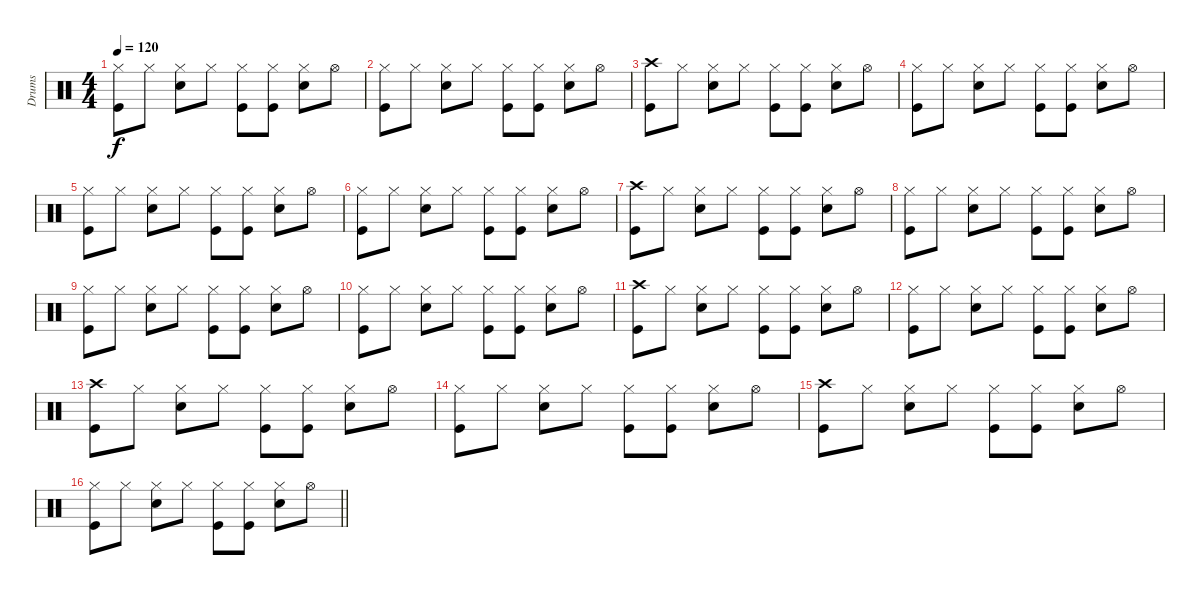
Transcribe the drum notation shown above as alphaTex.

\track ("Drums" "Drums") {instrument percussion}
\staff {score}
\articulation defaults
\ts (4 4)
\tempo 120
\clef neutral
\ks c
("Hi-Hat (closed)" "Kick (hit)").8{dy f} "Hi-Hat (closed)".8 ("Hi-Hat (closed)" "Electric Snare (hit)").8 "Hi-Hat (closed)".8 ("Hi-Hat (closed)" "Kick (hit)").8 ("Hi-Hat (closed)" "Kick (hit)").8 ("Hi-Hat (closed)" "Electric Snare (hit)").8 "Hi-Hat (open)".8 |
("Hi-Hat (closed)" "Kick (hit)").8 "Hi-Hat (closed)".8 ("Hi-Hat (closed)" "Electric Snare (hit)").8 "Hi-Hat (closed)".8 ("Hi-Hat (closed)" "Kick (hit)").8 ("Hi-Hat (closed)" "Kick (hit)").8 ("Hi-Hat (closed)" "Electric Snare (hit)").8 "Hi-Hat (open)".8 |
("Crash high (hit)" "Kick (hit)").8 "Hi-Hat (closed)".8 ("Hi-Hat (closed)" "Electric Snare (hit)").8 "Hi-Hat (closed)".8 ("Hi-Hat (closed)" "Kick (hit)").8 ("Hi-Hat (closed)" "Kick (hit)").8 ("Hi-Hat (closed)" "Electric Snare (hit)").8 "Hi-Hat (open)".8 |
("Hi-Hat (closed)" "Kick (hit)").8 "Hi-Hat (closed)".8 ("Hi-Hat (closed)" "Electric Snare (hit)").8 "Hi-Hat (closed)".8 ("Hi-Hat (closed)" "Kick (hit)").8 ("Hi-Hat (closed)" "Kick (hit)").8 ("Hi-Hat (closed)" "Electric Snare (hit)").8 "Hi-Hat (open)".8 |
("Hi-Hat (closed)" "Kick (hit)").8 "Hi-Hat (closed)".8 ("Hi-Hat (closed)" "Electric Snare (hit)").8 "Hi-Hat (closed)".8 ("Hi-Hat (closed)" "Kick (hit)").8 ("Hi-Hat (closed)" "Kick (hit)").8 ("Hi-Hat (closed)" "Electric Snare (hit)").8 "Hi-Hat (open)".8 |
("Hi-Hat (closed)" "Kick (hit)").8 "Hi-Hat (closed)".8 ("Hi-Hat (closed)" "Electric Snare (hit)").8 "Hi-Hat (closed)".8 ("Hi-Hat (closed)" "Kick (hit)").8 ("Hi-Hat (closed)" "Kick (hit)").8 ("Hi-Hat (closed)" "Electric Snare (hit)").8 "Hi-Hat (open)".8 |
("Crash high (hit)" "Kick (hit)").8 "Hi-Hat (closed)".8 ("Hi-Hat (closed)" "Electric Snare (hit)").8 "Hi-Hat (closed)".8 ("Hi-Hat (closed)" "Kick (hit)").8 ("Hi-Hat (closed)" "Kick (hit)").8 ("Hi-Hat (closed)" "Electric Snare (hit)").8 "Hi-Hat (open)".8 |
("Hi-Hat (closed)" "Kick (hit)").8 "Hi-Hat (closed)".8 ("Hi-Hat (closed)" "Electric Snare (hit)").8 "Hi-Hat (closed)".8 ("Hi-Hat (closed)" "Kick (hit)").8 ("Hi-Hat (closed)" "Kick (hit)").8 ("Hi-Hat (closed)" "Electric Snare (hit)").8 "Hi-Hat (open)".8 |
("Hi-Hat (closed)" "Kick (hit)").8 "Hi-Hat (closed)".8 ("Hi-Hat (closed)" "Electric Snare (hit)").8 "Hi-Hat (closed)".8 ("Hi-Hat (closed)" "Kick (hit)").8 ("Hi-Hat (closed)" "Kick (hit)").8 ("Hi-Hat (closed)" "Electric Snare (hit)").8 "Hi-Hat (open)".8 |
("Hi-Hat (closed)" "Kick (hit)").8 "Hi-Hat (closed)".8 ("Hi-Hat (closed)" "Electric Snare (hit)").8 "Hi-Hat (closed)".8 ("Hi-Hat (closed)" "Kick (hit)").8 ("Hi-Hat (closed)" "Kick (hit)").8 ("Hi-Hat (closed)" "Electric Snare (hit)").8 "Hi-Hat (open)".8 |
("Crash high (hit)" "Kick (hit)").8 "Hi-Hat (closed)".8 ("Hi-Hat (closed)" "Electric Snare (hit)").8 "Hi-Hat (closed)".8 ("Hi-Hat (closed)" "Kick (hit)").8 ("Hi-Hat (closed)" "Kick (hit)").8 ("Hi-Hat (closed)" "Electric Snare (hit)").8 "Hi-Hat (open)".8 |
("Hi-Hat (closed)" "Kick (hit)").8 "Hi-Hat (closed)".8 ("Hi-Hat (closed)" "Electric Snare (hit)").8 "Hi-Hat (closed)".8 ("Hi-Hat (closed)" "Kick (hit)").8 ("Hi-Hat (closed)" "Kick (hit)").8 ("Hi-Hat (closed)" "Electric Snare (hit)").8 "Hi-Hat (open)".8 |
("Crash high (hit)" "Kick (hit)").8 "Hi-Hat (closed)".8 ("Hi-Hat (closed)" "Electric Snare (hit)").8 "Hi-Hat (closed)".8 ("Hi-Hat (closed)" "Kick (hit)").8 ("Hi-Hat (closed)" "Kick (hit)").8 ("Hi-Hat (closed)" "Electric Snare (hit)").8 "Hi-Hat (open)".8 |
("Hi-Hat (closed)" "Kick (hit)").8 "Hi-Hat (closed)".8 ("Hi-Hat (closed)" "Electric Snare (hit)").8 "Hi-Hat (closed)".8 ("Hi-Hat (closed)" "Kick (hit)").8 ("Hi-Hat (closed)" "Kick (hit)").8 ("Hi-Hat (closed)" "Electric Snare (hit)").8 "Hi-Hat (open)".8 |
("Crash high (hit)" "Kick (hit)").8 "Hi-Hat (closed)".8 ("Hi-Hat (closed)" "Electric Snare (hit)").8 "Hi-Hat (closed)".8 ("Hi-Hat (closed)" "Kick (hit)").8 ("Hi-Hat (closed)" "Kick (hit)").8 ("Hi-Hat (closed)" "Electric Snare (hit)").8 "Hi-Hat (open)".8 |
\barLineRight lightlight
("Hi-Hat (closed)" "Kick (hit)").8 "Hi-Hat (closed)".8 ("Hi-Hat (closed)" "Electric Snare (hit)").8 "Hi-Hat (closed)".8 ("Hi-Hat (closed)" "Kick (hit)").8 ("Hi-Hat (closed)" "Kick (hit)").8 ("Hi-Hat (closed)" "Electric Snare (hit)").8 "Hi-Hat (open)".8
